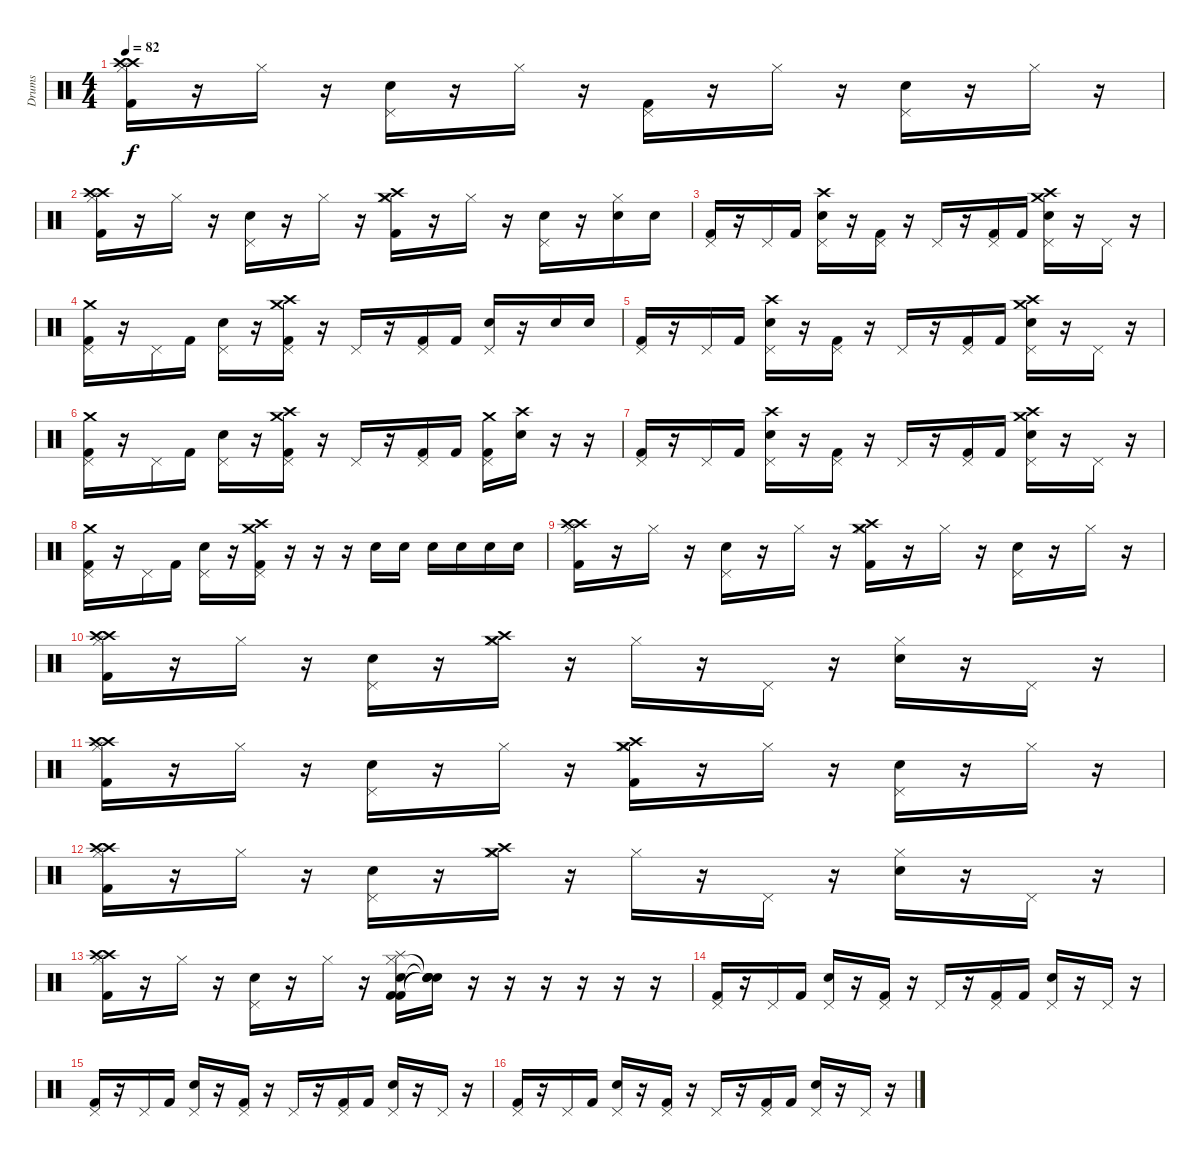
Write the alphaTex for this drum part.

\track ("Drums" "Drums") {instrument percussion}
\staff {score}
\articulation defaults
\ts (4 4)
\tempo 82
\clef neutral
\ks c
("Hi-Hat (closed)" "Crash high (hit)" "Crash high (hit)" "Kick (hit) 2").16{dy f} r.16 "Hi-Hat (closed)".16 r.16 ("Pedal Hi-Hat (hit)" "Snare (hit) 2").16 r.16 "Hi-Hat (closed)".16 r.16 ("Pedal Hi-Hat (hit)" "Kick (hit) 2").16 r.16 "Hi-Hat (closed)".16 r.16 ("Pedal Hi-Hat (hit)" "Snare (hit) 2").16 r.16 "Hi-Hat (closed)".16 r.16 |
("Hi-Hat (closed)" "Crash high (hit)" "Crash high (hit)" "Kick (hit) 2").16 r.16 "Hi-Hat (closed)".16 r.16 ("Pedal Hi-Hat (hit)" "Snare (hit) 2").16 r.16 "Hi-Hat (closed)".16 r.16 ("Hi-Hat (closed)" "Crash high (hit)" "Crash medium (hit)" "Kick (hit) 2").16 r.16 "Hi-Hat (closed)".16 r.16 ("Pedal Hi-Hat (hit)" "Snare (hit) 2").16 r.16 ("Hi-Hat (closed)" "Snare (hit) 2").16 "Snare (hit) 2".16 |
("Pedal Hi-Hat (hit)" "Kick (hit) 2").16 r.16 "Pedal Hi-Hat (hit)".16 "Kick (hit) 2".16 ("Pedal Hi-Hat (hit)" "Crash high (hit)" "Snare (hit) 2").16 r.16 ("Pedal Hi-Hat (hit)" "Kick (hit) 2").16 r.16 "Pedal Hi-Hat (hit)".16 r.16 ("Pedal Hi-Hat (hit)" "Kick (hit) 2").16 "Kick (hit) 2".16 ("Pedal Hi-Hat (hit)" "Crash high (hit)" "Snare (hit) 2" "Crash medium (hit)").16 r.16 "Pedal Hi-Hat (hit)".16 r.16 |
("Pedal Hi-Hat (hit)" "Crash medium (hit)" "Kick (hit) 2").16 r.16 "Pedal Hi-Hat (hit)".16 "Kick (hit) 2".16 ("Pedal Hi-Hat (hit)" "Snare (hit) 2").16 r.16 ("Pedal Hi-Hat (hit)" "Crash medium (hit)" "Kick (hit) 2" "Crash high (hit)").16 r.16 "Pedal Hi-Hat (hit)".16 r.16 ("Pedal Hi-Hat (hit)" "Kick (hit) 2").16 "Kick (hit) 2".16 ("Pedal Hi-Hat (hit)" "Snare (hit) 2").16 r.16 "Snare (hit) 2".16 "Snare (hit) 2".16 |
("Pedal Hi-Hat (hit)" "Kick (hit) 2").16 r.16 "Pedal Hi-Hat (hit)".16 "Kick (hit) 2".16 ("Pedal Hi-Hat (hit)" "Crash high (hit)" "Snare (hit) 2").16 r.16 ("Pedal Hi-Hat (hit)" "Kick (hit) 2").16 r.16 "Pedal Hi-Hat (hit)".16 r.16 ("Pedal Hi-Hat (hit)" "Kick (hit) 2").16 "Kick (hit) 2".16 ("Pedal Hi-Hat (hit)" "Crash high (hit)" "Snare (hit) 2" "Crash medium (hit)").16 r.16 "Pedal Hi-Hat (hit)".16 r.16 |
("Pedal Hi-Hat (hit)" "Crash medium (hit)" "Kick (hit) 2").16 r.16 "Pedal Hi-Hat (hit)".16 "Kick (hit) 2".16 ("Pedal Hi-Hat (hit)" "Snare (hit) 2").16 r.16 ("Pedal Hi-Hat (hit)" "Crash medium (hit)" "Kick (hit) 2" "Crash high (hit)").16 r.16 "Pedal Hi-Hat (hit)".16 r.16 ("Pedal Hi-Hat (hit)" "Kick (hit) 2").16 "Kick (hit) 2".16 ("Pedal Hi-Hat (hit)" "Crash medium (hit)" "Kick (hit) 2").16 ("Crash high (hit)" "Snare (hit) 2").16 r.16 r.16 |
("Pedal Hi-Hat (hit)" "Kick (hit) 2").16 r.16 "Pedal Hi-Hat (hit)".16 "Kick (hit) 2".16 ("Pedal Hi-Hat (hit)" "Crash high (hit)" "Snare (hit) 2").16 r.16 ("Pedal Hi-Hat (hit)" "Kick (hit) 2").16 r.16 "Pedal Hi-Hat (hit)".16 r.16 ("Pedal Hi-Hat (hit)" "Kick (hit) 2").16 "Kick (hit) 2".16 ("Pedal Hi-Hat (hit)" "Crash high (hit)" "Snare (hit) 2" "Crash medium (hit)").16 r.16 "Pedal Hi-Hat (hit)".16 r.16 |
("Pedal Hi-Hat (hit)" "Crash medium (hit)" "Kick (hit) 2").16 r.16 "Pedal Hi-Hat (hit)".16 "Kick (hit) 2".16 ("Pedal Hi-Hat (hit)" "Snare (hit) 2").16 r.16 ("Pedal Hi-Hat (hit)" "Crash medium (hit)" "Kick (hit) 2" "Crash high (hit)").16 r.16 r.16{volume 7} r.16{volume 16} "Snare (hit) 2".16 "Snare (hit) 2".16 "Snare (hit) 2".16 "Snare (hit) 2".16 "Snare (hit) 2".16 "Snare (hit) 2".16 |
("Hi-Hat (closed)" "Crash high (hit)" "Crash high (hit)" "Kick (hit) 2").16 r.16 "Hi-Hat (closed)".16 r.16 ("Pedal Hi-Hat (hit)" "Snare (hit) 2").16 r.16 "Hi-Hat (closed)".16 r.16 ("Hi-Hat (closed)" "Crash high (hit)" "Crash medium (hit)" "Kick (hit) 2").16 r.16 "Hi-Hat (closed)".16 r.16 ("Pedal Hi-Hat (hit)" "Snare (hit) 2").16 r.16 "Hi-Hat (closed)".16 r.16 |
("Hi-Hat (closed)" "Crash high (hit)" "Crash high (hit)" "Kick (hit) 2").16 r.16 "Hi-Hat (closed)".16 r.16 ("Pedal Hi-Hat (hit)" "Snare (hit) 2").16 r.16 ("Hi-Hat (closed)" "Crash high (hit)" "Crash medium (hit)").16 r.16 "Hi-Hat (closed)".16 r.16 "Pedal Hi-Hat (hit)".16 r.16 ("Hi-Hat (closed)" "Snare (hit) 2").16 r.16 "Pedal Hi-Hat (hit)".16 r.16 |
("Hi-Hat (closed)" "Crash high (hit)" "Crash high (hit)" "Kick (hit) 2").16 r.16 "Hi-Hat (closed)".16 r.16 ("Pedal Hi-Hat (hit)" "Snare (hit) 2").16 r.16 "Hi-Hat (closed)".16 r.16 ("Hi-Hat (closed)" "Crash high (hit)" "Crash medium (hit)" "Kick (hit) 2").16 r.16 "Hi-Hat (closed)".16 r.16 ("Pedal Hi-Hat (hit)" "Snare (hit) 2").16 r.16 "Hi-Hat (closed)".16 r.16 |
("Hi-Hat (closed)" "Crash high (hit)" "Crash high (hit)" "Kick (hit) 2").16 r.16 "Hi-Hat (closed)".16 r.16 ("Pedal Hi-Hat (hit)" "Snare (hit) 2").16 r.16 ("Hi-Hat (closed)" "Crash high (hit)" "Crash medium (hit)").16 r.16 "Hi-Hat (closed)".16 r.16 "Pedal Hi-Hat (hit)".16 r.16 ("Hi-Hat (closed)" "Snare (hit) 2").16 r.16 "Pedal Hi-Hat (hit)".16 r.16 |
("Hi-Hat (closed)" "Crash high (hit)" "Crash high (hit)" "Kick (hit) 2").16 r.16 "Hi-Hat (closed)".16 r.16 ("Pedal Hi-Hat (hit)" "Snare (hit) 2").16 r.16 "Hi-Hat (closed)".16 r.16 ("Hi-Hat (closed)" "Kick (hit) 2" "Snare (hit) 2" "Kick (hit) 2" "Splash (hit)").16 ("Snare (hit)"{t} "Snare (hit)"{t} "Snare (hit)"{t} "Snare (hit)"{t}).16 r.16 r.16 r.16 r.16 r.16 r.16 |
("Pedal Hi-Hat (hit)" "Kick (hit) 2").16 r.16 "Pedal Hi-Hat (hit)".16 "Kick (hit) 2".16 ("Pedal Hi-Hat (hit)" "Snare (hit) 2").16 r.16 ("Pedal Hi-Hat (hit)" "Kick (hit) 2").16 r.16 "Pedal Hi-Hat (hit)".16 r.16 ("Pedal Hi-Hat (hit)" "Kick (hit) 2").16 "Kick (hit) 2".16 ("Pedal Hi-Hat (hit)" "Snare (hit) 2").16 r.16 "Pedal Hi-Hat (hit)".16 r.16 |
("Pedal Hi-Hat (hit)" "Kick (hit) 2").16 r.16 "Pedal Hi-Hat (hit)".16 "Kick (hit) 2".16 ("Pedal Hi-Hat (hit)" "Snare (hit) 2").16 r.16 ("Pedal Hi-Hat (hit)" "Kick (hit) 2").16 r.16 "Pedal Hi-Hat (hit)".16 r.16 ("Pedal Hi-Hat (hit)" "Kick (hit) 2").16 "Kick (hit) 2".16 ("Pedal Hi-Hat (hit)" "Snare (hit) 2").16 r.16 "Pedal Hi-Hat (hit)".16 r.16 |
("Pedal Hi-Hat (hit)" "Kick (hit) 2").16 r.16 "Pedal Hi-Hat (hit)".16 "Kick (hit) 2".16 ("Pedal Hi-Hat (hit)" "Snare (hit) 2").16 r.16 ("Pedal Hi-Hat (hit)" "Kick (hit) 2").16 r.16 "Pedal Hi-Hat (hit)".16 r.16 ("Pedal Hi-Hat (hit)" "Kick (hit) 2").16 "Kick (hit) 2".16 ("Pedal Hi-Hat (hit)" "Snare (hit) 2").16 r.16 "Pedal Hi-Hat (hit)".16 r.16
